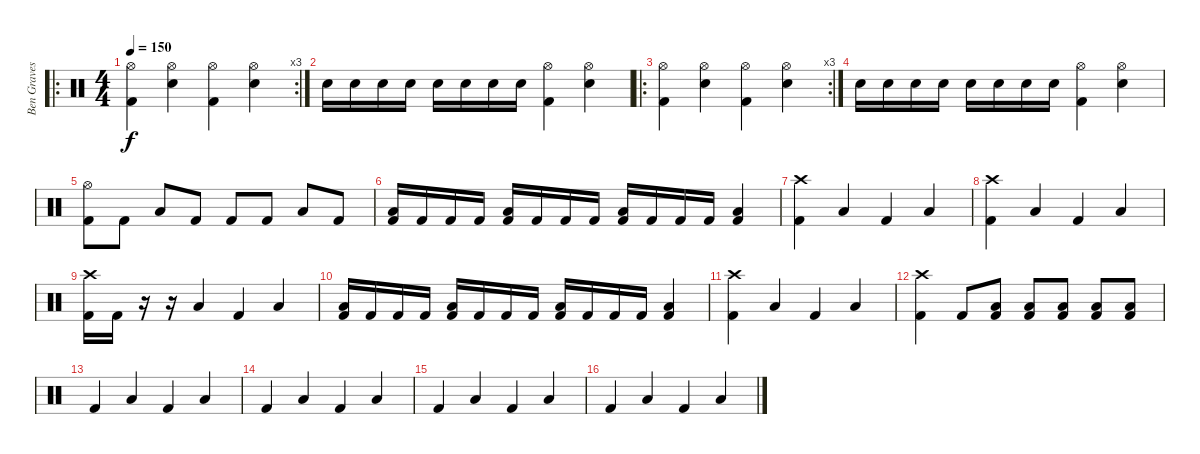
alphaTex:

\track ("Ben Graves" "Ben Graves") {instrument percussion}
\staff {score}
\articulation defaults
\ro
\rc 3
\ts (4 4)
\tempo 150
\clef neutral
\ks c
("Hi-Hat (open)" "Kick (hit) 2").4{dy f} ("Hi-Hat (open)" "Snare (hit) 2").4 ("Hi-Hat (open)" "Kick (hit) 2").4 ("Hi-Hat (open)" "Snare (hit) 2").4 |
"Snare (hit) 2".16 "Snare (hit) 2".16 "Snare (hit) 2".16 "Snare (hit) 2".16 "Snare (hit) 2".16 "Snare (hit) 2".16 "Snare (hit) 2".16 "Snare (hit) 2".16 ("Hi-Hat (open)" "Kick (hit) 2").4 ("Hi-Hat (open)" "Snare (hit) 2").4 |
\ro
\rc 3
("Hi-Hat (open)" "Kick (hit) 2").4 ("Hi-Hat (open)" "Snare (hit) 2").4 ("Hi-Hat (open)" "Kick (hit) 2").4 ("Hi-Hat (open)" "Snare (hit) 2").4 |
"Snare (hit) 2".16 "Snare (hit) 2".16 "Snare (hit) 2".16 "Snare (hit) 2".16 "Snare (hit) 2".16 "Snare (hit) 2".16 "Snare (hit) 2".16 "Snare (hit) 2".16 ("Hi-Hat (open)" "Kick (hit) 2").4 ("Hi-Hat (open)" "Snare (hit) 2").4 |
("Hi-Hat (open)" "Kick (hit) 2").8 "Kick (hit) 2".8 "Low Floor Tom (hit)".8 "Kick (hit) 2".8 "Kick (hit) 2".8 "Kick (hit) 2".8 "Low Floor Tom (hit)".8 "Kick (hit) 2".8 |
("Low Floor Tom (hit)" "Kick (hit) 2").16 "Kick (hit) 2".16 "Kick (hit) 2".16 "Kick (hit) 2".16 ("Low Floor Tom (hit)" "Kick (hit) 2").16 "Kick (hit) 2".16 "Kick (hit) 2".16 "Kick (hit) 2".16 ("Low Floor Tom (hit)" "Kick (hit) 2").16 "Kick (hit) 2".16 "Kick (hit) 2".16 "Kick (hit) 2".16 ("Low Floor Tom (hit)" "Kick (hit) 2").4 |
("Crash high (hit)" "Kick (hit) 2").4 "Low Floor Tom (hit)".4 "Kick (hit) 2".4 "Low Floor Tom (hit)".4 |
("Crash high (hit)" "Kick (hit) 2").4 "Low Floor Tom (hit)".4 "Kick (hit) 2".4 "Low Floor Tom (hit)".4 |
("Crash high (hit)" "Kick (hit) 2").16 "Kick (hit) 2".16 r.16 r.16 "Low Floor Tom (hit)".4 "Kick (hit) 2".4 "Low Floor Tom (hit)".4 |
("Low Floor Tom (hit)" "Kick (hit) 2").16 "Kick (hit) 2".16 "Kick (hit) 2".16 "Kick (hit) 2".16 ("Low Floor Tom (hit)" "Kick (hit) 2").16 "Kick (hit) 2".16 "Kick (hit) 2".16 "Kick (hit) 2".16 ("Low Floor Tom (hit)" "Kick (hit) 2").16 "Kick (hit) 2".16 "Kick (hit) 2".16 "Kick (hit) 2".16 ("Low Floor Tom (hit)" "Kick (hit) 2").4 |
("Crash high (hit)" "Kick (hit) 2").4 "Low Floor Tom (hit)".4 "Kick (hit) 2".4 "Low Floor Tom (hit)".4 |
("Crash high (hit)" "Kick (hit) 2").4 "Kick (hit) 2".8 ("Low Floor Tom (hit)" "Kick (hit) 2").8 ("Low Floor Tom (hit)" "Kick (hit) 2").8 ("Low Floor Tom (hit)" "Kick (hit) 2").8 ("Low Floor Tom (hit)" "Kick (hit) 2").8 ("Low Floor Tom (hit)" "Kick (hit) 2").8 |
"Kick (hit) 2".4 "Low Floor Tom (hit)".4 "Kick (hit) 2".4 "Low Floor Tom (hit)".4 |
"Kick (hit) 2".4 "Low Floor Tom (hit)".4 "Kick (hit) 2".4 "Low Floor Tom (hit)".4 |
"Kick (hit) 2".4 "Low Floor Tom (hit)".4 "Kick (hit) 2".4 "Low Floor Tom (hit)".4 |
"Kick (hit) 2".4 "Low Floor Tom (hit)".4 "Kick (hit) 2".4 "Low Floor Tom (hit)".4
